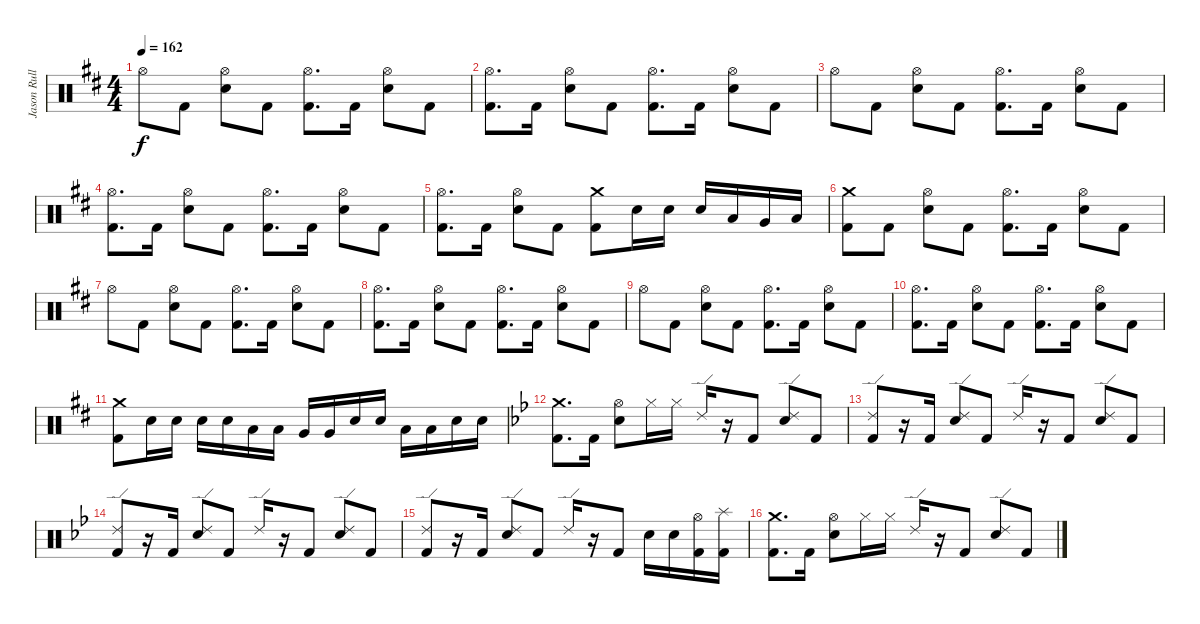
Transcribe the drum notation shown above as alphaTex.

\track ("Jason Rullo" "Jason Rull") {instrument percussion}
\staff {score}
\articulation defaults
\ts (4 4)
\tempo 162
\clef neutral
\ks bminor "Hi-Hat (open)".8{dy f} "Kick (hit) 2".8
("Hi-Hat (open)" "Electric Snare (hit)").8 "Kick (hit) 2".8 ("Hi-Hat (open)" "Kick (hit) 2").8{d} "Kick (hit) 2".16 ("Hi-Hat (open)" "Electric Snare (hit)").8 "Kick (hit) 2".8 |
("Hi-Hat (open)" "Kick (hit) 2").8{d} "Kick (hit) 2".16 ("Hi-Hat (open)" "Electric Snare (hit)").8 "Kick (hit) 2".8 ("Hi-Hat (open)" "Kick (hit) 2").8{d} "Kick (hit) 2".16 ("Hi-Hat (open)" "Electric Snare (hit)").8 "Kick (hit) 2".8 |
"Hi-Hat (open)".8 "Kick (hit) 2".8 ("Hi-Hat (open)" "Electric Snare (hit)").8 "Kick (hit) 2".8 ("Hi-Hat (open)" "Kick (hit) 2").8{d} "Kick (hit) 2".16 ("Hi-Hat (open)" "Electric Snare (hit)").8 "Kick (hit) 2".8 |
("Hi-Hat (open)" "Kick (hit) 2").8{d} "Kick (hit) 2".16 ("Hi-Hat (open)" "Electric Snare (hit)").8 "Kick (hit) 2".8 ("Hi-Hat (open)" "Kick (hit) 2").8{d} "Kick (hit) 2".16 ("Hi-Hat (open)" "Electric Snare (hit)").8 "Kick (hit) 2".8 |
("Hi-Hat (open)" "Kick (hit) 2").8{d} "Kick (hit) 2".16 ("Hi-Hat (open)" "Electric Snare (hit)").8 "Kick (hit) 2".8 ("Crash medium (hit)" "Kick (hit) 2").8 "Electric Snare (hit)".16{volume 12} "Electric Snare (hit)".16{volume 13} "Electric Snare (hit)".16{volume 14} "Low Tom (hit)".16{volume 14} "Very Low Tom (hit)".16{volume 15} "Low Floor Tom (hit)".16{volume 16} |
("Crash medium (hit)" "Kick (hit) 2").8 "Kick (hit) 2".8 ("Hi-Hat (open)" "Electric Snare (hit)").8 "Kick (hit) 2".8 ("Hi-Hat (open)" "Kick (hit) 2").8{d} "Kick (hit) 2".16 ("Hi-Hat (open)" "Electric Snare (hit)").8 "Kick (hit) 2".8 |
"Hi-Hat (open)".8 "Kick (hit) 2".8 ("Hi-Hat (open)" "Electric Snare (hit)").8 "Kick (hit) 2".8 ("Hi-Hat (open)" "Kick (hit) 2").8{d} "Kick (hit) 2".16 ("Hi-Hat (open)" "Electric Snare (hit)").8 "Kick (hit) 2".8 |
("Hi-Hat (open)" "Kick (hit) 2").8{d} "Kick (hit) 2".16 ("Hi-Hat (open)" "Electric Snare (hit)").8 "Kick (hit) 2".8 ("Hi-Hat (open)" "Kick (hit) 2").8{d} "Kick (hit) 2".16 ("Hi-Hat (open)" "Electric Snare (hit)").8 "Kick (hit) 2".8 |
"Hi-Hat (open)".8 "Kick (hit) 2".8 ("Hi-Hat (open)" "Electric Snare (hit)").8 "Kick (hit) 2".8 ("Hi-Hat (open)" "Kick (hit) 2").8{d} "Kick (hit) 2".16 ("Hi-Hat (open)" "Electric Snare (hit)").8 "Kick (hit) 2".8 |
("Hi-Hat (open)" "Kick (hit) 2").8{d} "Kick (hit) 2".16 ("Hi-Hat (open)" "Electric Snare (hit)").8 "Kick (hit) 2".8 ("Hi-Hat (open)" "Kick (hit) 2").8{d} "Kick (hit) 2".16 ("Hi-Hat (open)" "Electric Snare (hit)").8 "Kick (hit) 2".8 |
("Crash medium (hit)" "Kick (hit) 2").8 "Electric Snare (hit)".16 "Electric Snare (hit)".16 "Electric Snare (hit)".16 "Electric Snare (hit)".16 "Low Tom (hit)".16 "Low Tom (hit)".16 "Very Low Tom (hit)".16 "Very Low Tom (hit)".16 "Electric Snare (hit)".16 "Electric Snare (hit)".16 "Low Floor Tom (hit)".16 "Low Floor Tom (hit)".16 "Electric Snare (hit)".16 "Electric Snare (hit)".16 |
\ks bb
("Crash medium (hit)" "Kick (hit) 2").8{d} "Kick (hit) 2".16 ("Hi-Hat (open)" "Electric Snare (hit)").8 "Hi-Hat (closed)".16 "Hi-Hat (closed)".16 "Ride (edge) 2".16 r.16 "Kick (hit) 2".8 ("Ride (edge) 2" "Electric Snare (hit)").8 "Kick (hit) 2".8 |
("Ride (edge) 2" "Kick (hit) 2").8 r.16 "Kick (hit) 2".16 ("Electric Snare (hit)" "Ride (edge) 2").8 "Kick (hit) 2".8 "Ride (edge) 2".16 r.16 "Kick (hit) 2".8 ("Electric Snare (hit)" "Ride (edge) 2").8 "Kick (hit) 2".8 |
("Ride (edge) 2" "Kick (hit) 2").8 r.16 "Kick (hit) 2".16 ("Electric Snare (hit)" "Ride (edge) 2").8 "Kick (hit) 2".8 "Ride (edge) 2".16 r.16 "Kick (hit) 2".8 ("Electric Snare (hit)" "Ride (edge) 2").8 "Kick (hit) 2".8 |
("Ride (edge) 2" "Kick (hit) 2").8 r.16 "Kick (hit) 2".16 ("Electric Snare (hit)" "Ride (edge) 2").8 "Kick (hit) 2".8 "Ride (edge) 2".16 r.16 "Kick (hit) 2".8 "Electric Snare (hit)".16 "Electric Snare (hit)".16 ("Kick (hit) 2" "Hi-Hat (open)").16 ("Kick (hit) 2" "Splash (hit)").16 |
("Crash medium (hit)" "Kick (hit) 2").8{d} "Kick (hit) 2".16 ("Hi-Hat (open)" "Electric Snare (hit)").8 "Hi-Hat (closed)".16 "Hi-Hat (closed)".16 "Ride (edge) 2".16 r.16 "Kick (hit) 2".8 ("Ride (edge) 2" "Electric Snare (hit)").8 "Kick (hit) 2".8
